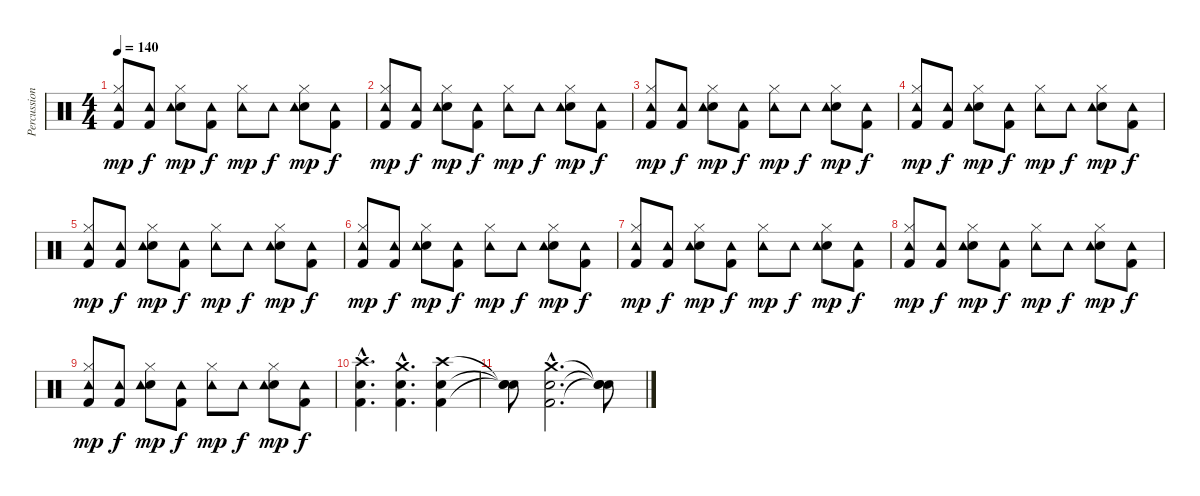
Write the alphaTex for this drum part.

\track ("Percussion" "Percussion") {instrument percussion}
\staff {score}
\articulation defaults
\ts (4 4)
\tempo 140
\clef neutral
\ks c
("Kick (hit) 2" "Hi-Hat (closed)" "Tambourine (hit)").8{dy mp} ("Kick (hit) 2" "Tambourine (hit)").8{dy f} ("Snare (hit) 2" "Hi-Hat (closed)" "Tambourine (hit)").8{dy mp} ("Kick (hit) 2" "Tambourine (hit)").8{dy f} ("Hi-Hat (closed)" "Tambourine (hit)").8{dy mp} "Tambourine (hit)".8{dy f} ("Snare (hit) 2" "Hi-Hat (closed)" "Tambourine (hit)").8{dy mp} ("Kick (hit) 2" "Tambourine (hit)").8{dy f} |
("Kick (hit) 2" "Hi-Hat (closed)" "Tambourine (hit)").8{dy mp} ("Kick (hit) 2" "Tambourine (hit)").8{dy f} ("Snare (hit) 2" "Hi-Hat (closed)" "Tambourine (hit)").8{dy mp} ("Kick (hit) 2" "Tambourine (hit)").8{dy f} ("Hi-Hat (closed)" "Tambourine (hit)").8{dy mp} "Tambourine (hit)".8{dy f} ("Snare (hit) 2" "Hi-Hat (closed)" "Tambourine (hit)").8{dy mp} ("Kick (hit) 2" "Tambourine (hit)").8{dy f} |
("Kick (hit) 2" "Hi-Hat (closed)" "Tambourine (hit)").8{dy mp} ("Kick (hit) 2" "Tambourine (hit)").8{dy f} ("Snare (hit) 2" "Hi-Hat (closed)" "Tambourine (hit)").8{dy mp} ("Kick (hit) 2" "Tambourine (hit)").8{dy f} ("Hi-Hat (closed)" "Tambourine (hit)").8{dy mp} "Tambourine (hit)".8{dy f} ("Snare (hit) 2" "Hi-Hat (closed)" "Tambourine (hit)").8{dy mp} ("Kick (hit) 2" "Tambourine (hit)").8{dy f} |
("Kick (hit) 2" "Hi-Hat (closed)" "Tambourine (hit)").8{dy mp} ("Kick (hit) 2" "Tambourine (hit)").8{dy f} ("Snare (hit) 2" "Hi-Hat (closed)" "Tambourine (hit)").8{dy mp} ("Kick (hit) 2" "Tambourine (hit)").8{dy f} ("Hi-Hat (closed)" "Tambourine (hit)").8{dy mp} "Tambourine (hit)".8{dy f} ("Snare (hit) 2" "Hi-Hat (closed)" "Tambourine (hit)").8{dy mp} ("Kick (hit) 2" "Tambourine (hit)").8{dy f} |
("Kick (hit) 2" "Hi-Hat (closed)" "Tambourine (hit)").8{dy mp} ("Kick (hit) 2" "Tambourine (hit)").8{dy f} ("Snare (hit) 2" "Hi-Hat (closed)" "Tambourine (hit)").8{dy mp} ("Kick (hit) 2" "Tambourine (hit)").8{dy f} ("Hi-Hat (closed)" "Tambourine (hit)").8{dy mp} "Tambourine (hit)".8{dy f} ("Snare (hit) 2" "Hi-Hat (closed)" "Tambourine (hit)").8{dy mp} ("Kick (hit) 2" "Tambourine (hit)").8{dy f} |
("Kick (hit) 2" "Hi-Hat (closed)" "Tambourine (hit)").8{dy mp} ("Kick (hit) 2" "Tambourine (hit)").8{dy f} ("Snare (hit) 2" "Hi-Hat (closed)" "Tambourine (hit)").8{dy mp} ("Kick (hit) 2" "Tambourine (hit)").8{dy f} ("Hi-Hat (closed)" "Tambourine (hit)").8{dy mp} "Tambourine (hit)".8{dy f} ("Snare (hit) 2" "Hi-Hat (closed)" "Tambourine (hit)").8{dy mp} ("Kick (hit) 2" "Tambourine (hit)").8{dy f} |
("Kick (hit) 2" "Hi-Hat (closed)" "Tambourine (hit)").8{dy mp} ("Kick (hit) 2" "Tambourine (hit)").8{dy f} ("Snare (hit) 2" "Hi-Hat (closed)" "Tambourine (hit)").8{dy mp} ("Kick (hit) 2" "Tambourine (hit)").8{dy f} ("Hi-Hat (closed)" "Tambourine (hit)").8{dy mp} "Tambourine (hit)".8{dy f} ("Snare (hit) 2" "Hi-Hat (closed)" "Tambourine (hit)").8{dy mp} ("Kick (hit) 2" "Tambourine (hit)").8{dy f} |
("Kick (hit) 2" "Hi-Hat (closed)" "Tambourine (hit)").8{dy mp} ("Kick (hit) 2" "Tambourine (hit)").8{dy f} ("Snare (hit) 2" "Hi-Hat (closed)" "Tambourine (hit)").8{dy mp} ("Kick (hit) 2" "Tambourine (hit)").8{dy f} ("Hi-Hat (closed)" "Tambourine (hit)").8{dy mp} "Tambourine (hit)".8{dy f} ("Snare (hit) 2" "Hi-Hat (closed)" "Tambourine (hit)").8{dy mp} ("Kick (hit) 2" "Tambourine (hit)").8{dy f} |
("Kick (hit) 2" "Hi-Hat (closed)" "Tambourine (hit)").8{dy mp} ("Kick (hit) 2" "Tambourine (hit)").8{dy f} ("Snare (hit) 2" "Hi-Hat (closed)" "Tambourine (hit)").8{dy mp} ("Kick (hit) 2" "Tambourine (hit)").8{dy f} ("Hi-Hat (closed)" "Tambourine (hit)").8{dy mp} "Tambourine (hit)".8{dy f} ("Snare (hit) 2" "Hi-Hat (closed)" "Tambourine (hit)").8{dy mp} ("Kick (hit) 2" "Tambourine (hit)").8{dy f} |
("Kick (hit) 2"{hac} "Snare (hit) 2"{hac} "Crash high (hit)"{hac}).4{d} ("Kick (hit) 2"{hac} "Snare (hit) 2"{hac} "Crash medium (hit)"{hac}).4{d} ("Kick (hit) 2" "Snare (hit) 2" "Crash high (hit)").4 |
("Snare (hit)"{t} "Snare (hit)"{t} "Snare (hit)"{t}).8 ("Kick (hit) 2"{hac} "Snare (hit) 2"{hac} "Crash medium (hit)"{hac}).2{d} ("Snare (hit)"{t} "Snare (hit)"{t} "Snare (hit)"{t}).8
